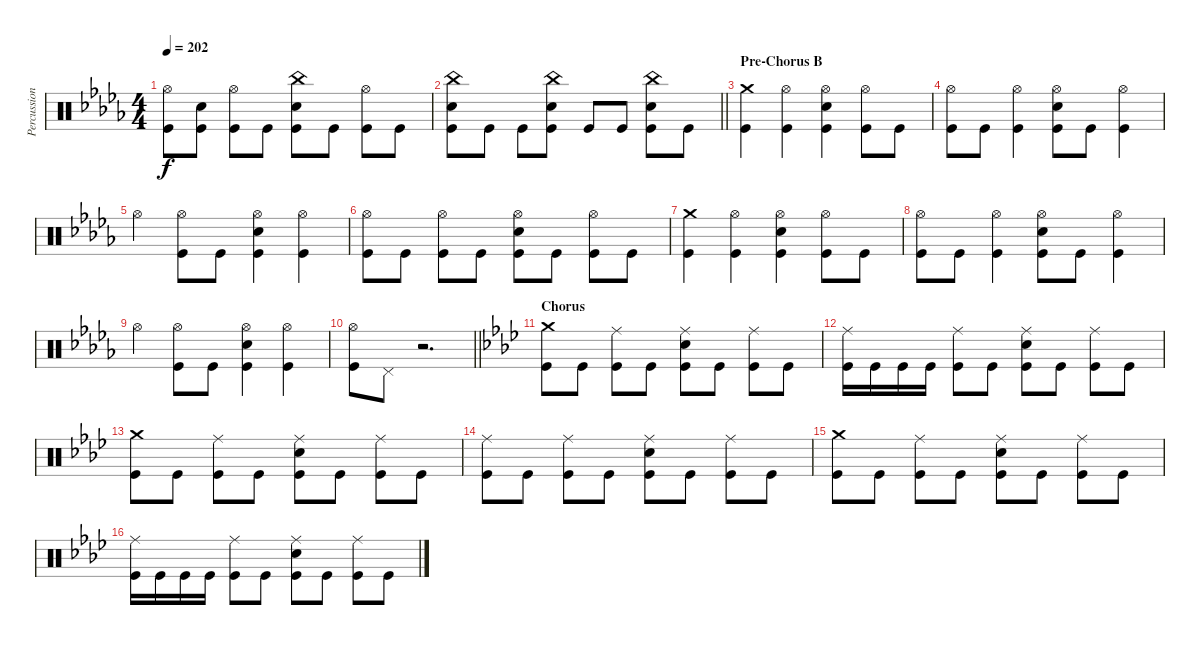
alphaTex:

\track ("Percussion" "Percussion") {instrument percussion}
\staff {score}
\articulation defaults
\ts (4 4)
\tempo 202
\clef neutral
\ks db
("Hi-Hat (open)" "Kick (hit)").8{dy f} ("Electric Snare (hit)" "Kick (hit)").8 ("Hi-Hat (open)" "Kick (hit)").8 "Kick (hit)".8 ("China (hit)" "Electric Snare (hit)" "Kick (hit)").8 "Kick (hit)".8 ("Hi-Hat (open)" "Kick (hit)").8 "Kick (hit)".8 |
\barLineRight lightlight
("China (hit)" "Electric Snare (hit)" "Kick (hit)").8 "Kick (hit)".8 "Kick (hit)".8 ("China (hit)" "Electric Snare (hit)" "Kick (hit)").8 "Kick (hit)".8 "Kick (hit)".8 ("China (hit)" "Electric Snare (hit)" "Kick (hit)").8 "Kick (hit)".8 |
\section ("" "Pre-Chorus B")
("Crash medium (hit)" "Kick (hit)").4 ("Hi-Hat (open)" "Kick (hit)").4 ("Hi-Hat (open)" "Electric Snare (hit)" "Kick (hit)").4 ("Hi-Hat (open)" "Kick (hit)").8 "Kick (hit)".8 |
("Hi-Hat (open)" "Kick (hit)").8 "Kick (hit)".8 ("Hi-Hat (open)" "Kick (hit)").4 ("Hi-Hat (open)" "Electric Snare (hit)" "Kick (hit)").8 "Kick (hit)".8 ("Hi-Hat (open)" "Kick (hit)").4 |
"Hi-Hat (open)".4 ("Hi-Hat (open)" "Kick (hit)").8 "Kick (hit)".8 ("Hi-Hat (open)" "Electric Snare (hit)" "Kick (hit)").4 ("Hi-Hat (open)" "Kick (hit)").4 |
("Hi-Hat (open)" "Kick (hit)").8 "Kick (hit)".8 ("Hi-Hat (open)" "Kick (hit)").8 "Kick (hit)".8 ("Hi-Hat (open)" "Electric Snare (hit)" "Kick (hit)").8 "Kick (hit)".8 ("Hi-Hat (open)" "Kick (hit)").8 "Kick (hit)".8 |
("Crash medium (hit)" "Kick (hit)").4 ("Hi-Hat (open)" "Kick (hit)").4 ("Hi-Hat (open)" "Electric Snare (hit)" "Kick (hit)").4 ("Hi-Hat (open)" "Kick (hit)").8 "Kick (hit)".8 |
("Hi-Hat (open)" "Kick (hit)").8 "Kick (hit)".8 ("Hi-Hat (open)" "Kick (hit)").4 ("Hi-Hat (open)" "Electric Snare (hit)" "Kick (hit)").8 "Kick (hit)".8 ("Hi-Hat (open)" "Kick (hit)").4 |
"Hi-Hat (open)".4 ("Hi-Hat (open)" "Kick (hit)").8 "Kick (hit)".8 ("Hi-Hat (open)" "Electric Snare (hit)" "Kick (hit)").4 ("Hi-Hat (open)" "Kick (hit)").4 |
\barLineRight lightlight
("Hi-Hat (open)" "Kick (hit)").8 "Pedal Hi-Hat (hit)".8 r.2{d} |
\section ("" "Chorus")
\ks ab
("Crash medium (hit)" "Kick (hit)").8 "Kick (hit)".8 ("Ride (middle)" "Kick (hit)").8 "Kick (hit)".8 ("Ride (middle)" "Electric Snare (hit)" "Kick (hit)").8 "Kick (hit)".8 ("Ride (middle)" "Kick (hit)").8 "Kick (hit)".8 |
("Ride (middle)" "Kick (hit)").16 "Kick (hit)".16 "Kick (hit)".16 "Kick (hit)".16 ("Ride (middle)" "Kick (hit)").8 "Kick (hit)".8 ("Ride (middle)" "Electric Snare (hit)" "Kick (hit)").8 "Kick (hit)".8 ("Ride (middle)" "Kick (hit)").8 "Kick (hit)".8 |
("Crash medium (hit)" "Kick (hit)").8 "Kick (hit)".8 ("Ride (middle)" "Kick (hit)").8 "Kick (hit)".8 ("Ride (middle)" "Electric Snare (hit)" "Kick (hit)").8 "Kick (hit)".8 ("Ride (middle)" "Kick (hit)").8 "Kick (hit)".8 |
("Ride (middle)" "Kick (hit)").8 "Kick (hit)".8 ("Ride (middle)" "Kick (hit)").8 "Kick (hit)".8 ("Ride (middle)" "Electric Snare (hit)" "Kick (hit)").8 "Kick (hit)".8 ("Ride (middle)" "Kick (hit)").8 "Kick (hit)".8 |
("Crash medium (hit)" "Kick (hit)").8 "Kick (hit)".8 ("Ride (middle)" "Kick (hit)").8 "Kick (hit)".8 ("Ride (middle)" "Electric Snare (hit)" "Kick (hit)").8 "Kick (hit)".8 ("Ride (middle)" "Kick (hit)").8 "Kick (hit)".8 |
("Ride (middle)" "Kick (hit)").16 "Kick (hit)".16 "Kick (hit)".16 "Kick (hit)".16 ("Ride (middle)" "Kick (hit)").8 "Kick (hit)".8 ("Ride (middle)" "Electric Snare (hit)" "Kick (hit)").8 "Kick (hit)".8 ("Ride (middle)" "Kick (hit)").8 "Kick (hit)".8
